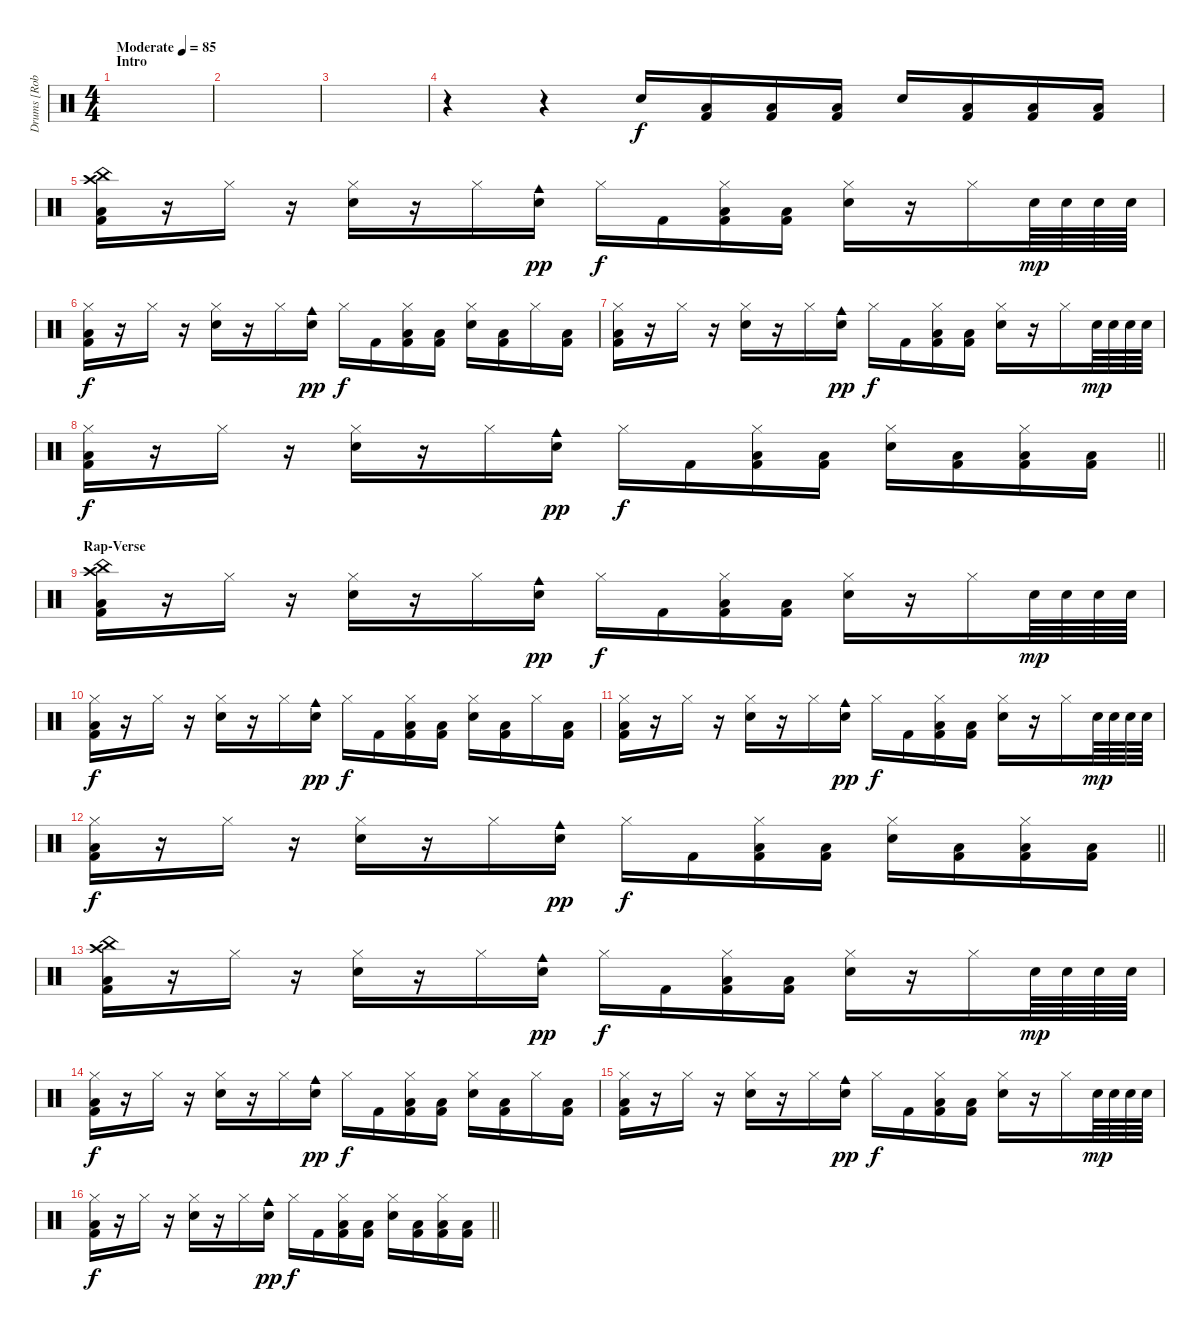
\track ("Drums [Rob Bourdon]" "Drums [Rob") {instrument percussion}
\staff {score}
\articulation defaults
\ts (4 4)
\section ("" "Intro")
\tempo (85 "Moderate")
\clef neutral
\ks c
|
|
|
r.4 r.4 "Snare (hit) 2".16 ("Low Floor Tom (hit)" "Kick (hit) 2").16 ("Low Floor Tom (hit)" "Kick (hit) 2").16 ("Low Floor Tom (hit)" "Kick (hit) 2").16 "Snare (hit) 2".16 ("Low Floor Tom (hit)" "Kick (hit) 2").16 ("Low Floor Tom (hit)" "Kick (hit) 2").16 ("Low Floor Tom (hit)" "Kick (hit) 2").16 |
("China (hit)" "Crash high (hit)" "Low Floor Tom (hit)" "Kick (hit) 2").16 r.16 "Hi-Hat (closed)".16 r.16 ("Hi-Hat (closed)" "Snare (hit) 2").16 r.16 "Hi-Hat (closed)".16 ("Snare (hit) 2" "Cowbell medium (hit)").16{dy pp} "Hi-Hat (closed)".16{dy f} "Kick (hit) 2".16 ("Hi-Hat (closed)" "Low Floor Tom (hit)" "Kick (hit) 2").16 ("Low Floor Tom (hit)" "Kick (hit) 2").16 ("Hi-Hat (closed)" "Snare (hit) 2").16 r.16 "Hi-Hat (closed)".16 "Snare (hit) 2".64{dy mp} "Snare (hit) 2".64 "Snare (hit) 2".64 "Snare (hit) 2".64 |
("Hi-Hat (closed)" "Low Floor Tom (hit)" "Kick (hit) 2").16{dy f} r.16 "Hi-Hat (closed)".16 r.16 ("Hi-Hat (closed)" "Snare (hit) 2").16 r.16 "Hi-Hat (closed)".16 ("Snare (hit) 2" "Cowbell medium (hit)").16{dy pp} "Hi-Hat (closed)".16{dy f} "Kick (hit) 2".16 ("Hi-Hat (closed)" "Low Floor Tom (hit)" "Kick (hit) 2").16 ("Low Floor Tom (hit)" "Kick (hit) 2").16 ("Hi-Hat (closed)" "Snare (hit) 2").16 ("Low Floor Tom (hit)" "Kick (hit) 2").16 "Hi-Hat (closed)".16 ("Low Floor Tom (hit)" "Kick (hit) 2").16 |
("Hi-Hat (closed)" "Low Floor Tom (hit)" "Kick (hit) 2").16 r.16 "Hi-Hat (closed)".16 r.16 ("Hi-Hat (closed)" "Snare (hit) 2").16 r.16 "Hi-Hat (closed)".16 ("Snare (hit) 2" "Cowbell medium (hit)").16{dy pp} "Hi-Hat (closed)".16{dy f} "Kick (hit) 2".16 ("Hi-Hat (closed)" "Low Floor Tom (hit)" "Kick (hit) 2").16 ("Low Floor Tom (hit)" "Kick (hit) 2").16 ("Hi-Hat (closed)" "Snare (hit) 2").16 r.16 "Hi-Hat (closed)".16 "Snare (hit) 2".64{dy mp} "Snare (hit) 2".64 "Snare (hit) 2".64 "Snare (hit) 2".64 |
\barLineRight lightlight
("Hi-Hat (closed)" "Low Floor Tom (hit)" "Kick (hit) 2").16{dy f} r.16 "Hi-Hat (closed)".16 r.16 ("Hi-Hat (closed)" "Snare (hit) 2").16 r.16 "Hi-Hat (closed)".16 ("Snare (hit) 2" "Cowbell medium (hit)").16{dy pp} "Hi-Hat (closed)".16{dy f} "Kick (hit) 2".16 ("Hi-Hat (closed)" "Low Floor Tom (hit)" "Kick (hit) 2").16 ("Low Floor Tom (hit)" "Kick (hit) 2").16 ("Hi-Hat (closed)" "Snare (hit) 2").16 ("Low Floor Tom (hit)" "Kick (hit) 2").16 ("Hi-Hat (closed)" "Low Floor Tom (hit)" "Kick (hit) 2").16 ("Low Floor Tom (hit)" "Kick (hit) 2").16 |
\section ("" "Rap-Verse")
("China (hit)" "Crash high (hit)" "Low Floor Tom (hit)" "Kick (hit) 2").16 r.16 "Hi-Hat (closed)".16 r.16 ("Hi-Hat (closed)" "Snare (hit) 2").16 r.16 "Hi-Hat (closed)".16 ("Snare (hit) 2" "Cowbell medium (hit)").16{dy pp} "Hi-Hat (closed)".16{dy f} "Kick (hit) 2".16 ("Hi-Hat (closed)" "Low Floor Tom (hit)" "Kick (hit) 2").16 ("Low Floor Tom (hit)" "Kick (hit) 2").16 ("Hi-Hat (closed)" "Snare (hit) 2").16 r.16 "Hi-Hat (closed)".16 "Snare (hit) 2".64{dy mp} "Snare (hit) 2".64 "Snare (hit) 2".64 "Snare (hit) 2".64 |
("Hi-Hat (closed)" "Low Floor Tom (hit)" "Kick (hit) 2").16{dy f} r.16 "Hi-Hat (closed)".16 r.16 ("Hi-Hat (closed)" "Snare (hit) 2").16 r.16 "Hi-Hat (closed)".16 ("Snare (hit) 2" "Cowbell medium (hit)").16{dy pp} "Hi-Hat (closed)".16{dy f} "Kick (hit) 2".16 ("Hi-Hat (closed)" "Low Floor Tom (hit)" "Kick (hit) 2").16 ("Low Floor Tom (hit)" "Kick (hit) 2").16 ("Hi-Hat (closed)" "Snare (hit) 2").16 ("Low Floor Tom (hit)" "Kick (hit) 2").16 "Hi-Hat (closed)".16 ("Low Floor Tom (hit)" "Kick (hit) 2").16 |
("Hi-Hat (closed)" "Low Floor Tom (hit)" "Kick (hit) 2").16 r.16 "Hi-Hat (closed)".16 r.16 ("Hi-Hat (closed)" "Snare (hit) 2").16 r.16 "Hi-Hat (closed)".16 ("Snare (hit) 2" "Cowbell medium (hit)").16{dy pp} "Hi-Hat (closed)".16{dy f} "Kick (hit) 2".16 ("Hi-Hat (closed)" "Low Floor Tom (hit)" "Kick (hit) 2").16 ("Low Floor Tom (hit)" "Kick (hit) 2").16 ("Hi-Hat (closed)" "Snare (hit) 2").16 r.16 "Hi-Hat (closed)".16 "Snare (hit) 2".64{dy mp} "Snare (hit) 2".64 "Snare (hit) 2".64 "Snare (hit) 2".64 |
\barLineRight lightlight
("Hi-Hat (closed)" "Low Floor Tom (hit)" "Kick (hit) 2").16{dy f} r.16 "Hi-Hat (closed)".16 r.16 ("Hi-Hat (closed)" "Snare (hit) 2").16 r.16 "Hi-Hat (closed)".16 ("Snare (hit) 2" "Cowbell medium (hit)").16{dy pp} "Hi-Hat (closed)".16{dy f} "Kick (hit) 2".16 ("Hi-Hat (closed)" "Low Floor Tom (hit)" "Kick (hit) 2").16 ("Low Floor Tom (hit)" "Kick (hit) 2").16 ("Hi-Hat (closed)" "Snare (hit) 2").16 ("Low Floor Tom (hit)" "Kick (hit) 2").16 ("Hi-Hat (closed)" "Low Floor Tom (hit)" "Kick (hit) 2").16 ("Low Floor Tom (hit)" "Kick (hit) 2").16 |
("China (hit)" "Crash high (hit)" "Low Floor Tom (hit)" "Kick (hit) 2").16 r.16 "Hi-Hat (closed)".16 r.16 ("Hi-Hat (closed)" "Snare (hit) 2").16 r.16 "Hi-Hat (closed)".16 ("Snare (hit) 2" "Cowbell medium (hit)").16{dy pp} "Hi-Hat (closed)".16{dy f} "Kick (hit) 2".16 ("Hi-Hat (closed)" "Low Floor Tom (hit)" "Kick (hit) 2").16 ("Low Floor Tom (hit)" "Kick (hit) 2").16 ("Hi-Hat (closed)" "Snare (hit) 2").16 r.16 "Hi-Hat (closed)".16 "Snare (hit) 2".64{dy mp} "Snare (hit) 2".64 "Snare (hit) 2".64 "Snare (hit) 2".64 |
("Hi-Hat (closed)" "Low Floor Tom (hit)" "Kick (hit) 2").16{dy f} r.16 "Hi-Hat (closed)".16 r.16 ("Hi-Hat (closed)" "Snare (hit) 2").16 r.16 "Hi-Hat (closed)".16 ("Snare (hit) 2" "Cowbell medium (hit)").16{dy pp} "Hi-Hat (closed)".16{dy f} "Kick (hit) 2".16 ("Hi-Hat (closed)" "Low Floor Tom (hit)" "Kick (hit) 2").16 ("Low Floor Tom (hit)" "Kick (hit) 2").16 ("Hi-Hat (closed)" "Snare (hit) 2").16 ("Low Floor Tom (hit)" "Kick (hit) 2").16 "Hi-Hat (closed)".16 ("Low Floor Tom (hit)" "Kick (hit) 2").16 |
("Hi-Hat (closed)" "Low Floor Tom (hit)" "Kick (hit) 2").16 r.16 "Hi-Hat (closed)".16 r.16 ("Hi-Hat (closed)" "Snare (hit) 2").16 r.16 "Hi-Hat (closed)".16 ("Snare (hit) 2" "Cowbell medium (hit)").16{dy pp} "Hi-Hat (closed)".16{dy f} "Kick (hit) 2".16 ("Hi-Hat (closed)" "Low Floor Tom (hit)" "Kick (hit) 2").16 ("Low Floor Tom (hit)" "Kick (hit) 2").16 ("Hi-Hat (closed)" "Snare (hit) 2").16 r.16 "Hi-Hat (closed)".16 "Snare (hit) 2".64{dy mp} "Snare (hit) 2".64 "Snare (hit) 2".64 "Snare (hit) 2".64 |
\barLineRight lightlight
("Hi-Hat (closed)" "Low Floor Tom (hit)" "Kick (hit) 2").16{dy f} r.16 "Hi-Hat (closed)".16 r.16 ("Hi-Hat (closed)" "Snare (hit) 2").16 r.16 "Hi-Hat (closed)".16 ("Snare (hit) 2" "Cowbell medium (hit)").16{dy pp} "Hi-Hat (closed)".16{dy f} "Kick (hit) 2".16 ("Hi-Hat (closed)" "Low Floor Tom (hit)" "Kick (hit) 2").16 ("Low Floor Tom (hit)" "Kick (hit) 2").16 ("Hi-Hat (closed)" "Snare (hit) 2").16 ("Low Floor Tom (hit)" "Kick (hit) 2").16 ("Hi-Hat (closed)" "Low Floor Tom (hit)" "Kick (hit) 2").16 ("Low Floor Tom (hit)" "Kick (hit) 2").16
